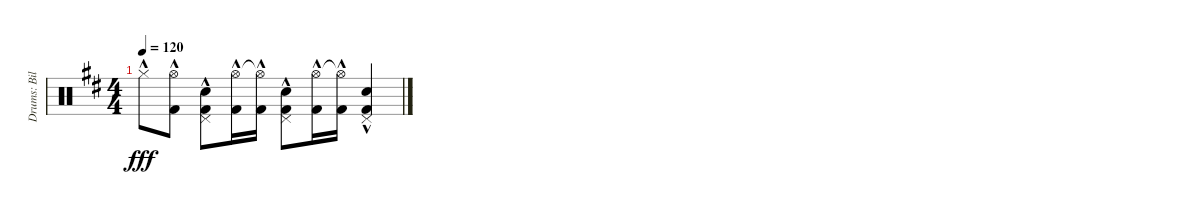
\track ("Drums: Bill" "Drums: Bil") {instrument percussion}
\staff {score}
\articulation defaults
\ts (4 4)
\tempo 120
\clef neutral
\ks d "Hi-Hat (closed)"{hac}.8{dy fff}
("Hi-Hat (open)"{hac} "Kick (hit) 2"{hac}).8 ("Pedal Hi-Hat (hit)"{hac} "Snare (hit) 2"{hac} "Kick (hit) 2"{hac}).8 ("Hi-Hat (open)"{hac} "Kick (hit) 2"{hac}).16 ("Hi-Hat (open)"{t} "Kick (hit) 2"{hac}).16 ("Pedal Hi-Hat (hit)"{hac} "Snare (hit) 2"{hac} "Kick (hit) 2"{hac}).8 ("Hi-Hat (open)"{hac} "Kick (hit) 2"{hac}).16 ("Hi-Hat (open)"{t} "Kick (hit) 2"{hac}).16 ("Pedal Hi-Hat (hit)"{hac} "Snare (hit) 2"{hac} "Kick (hit) 2"{hac}).4
